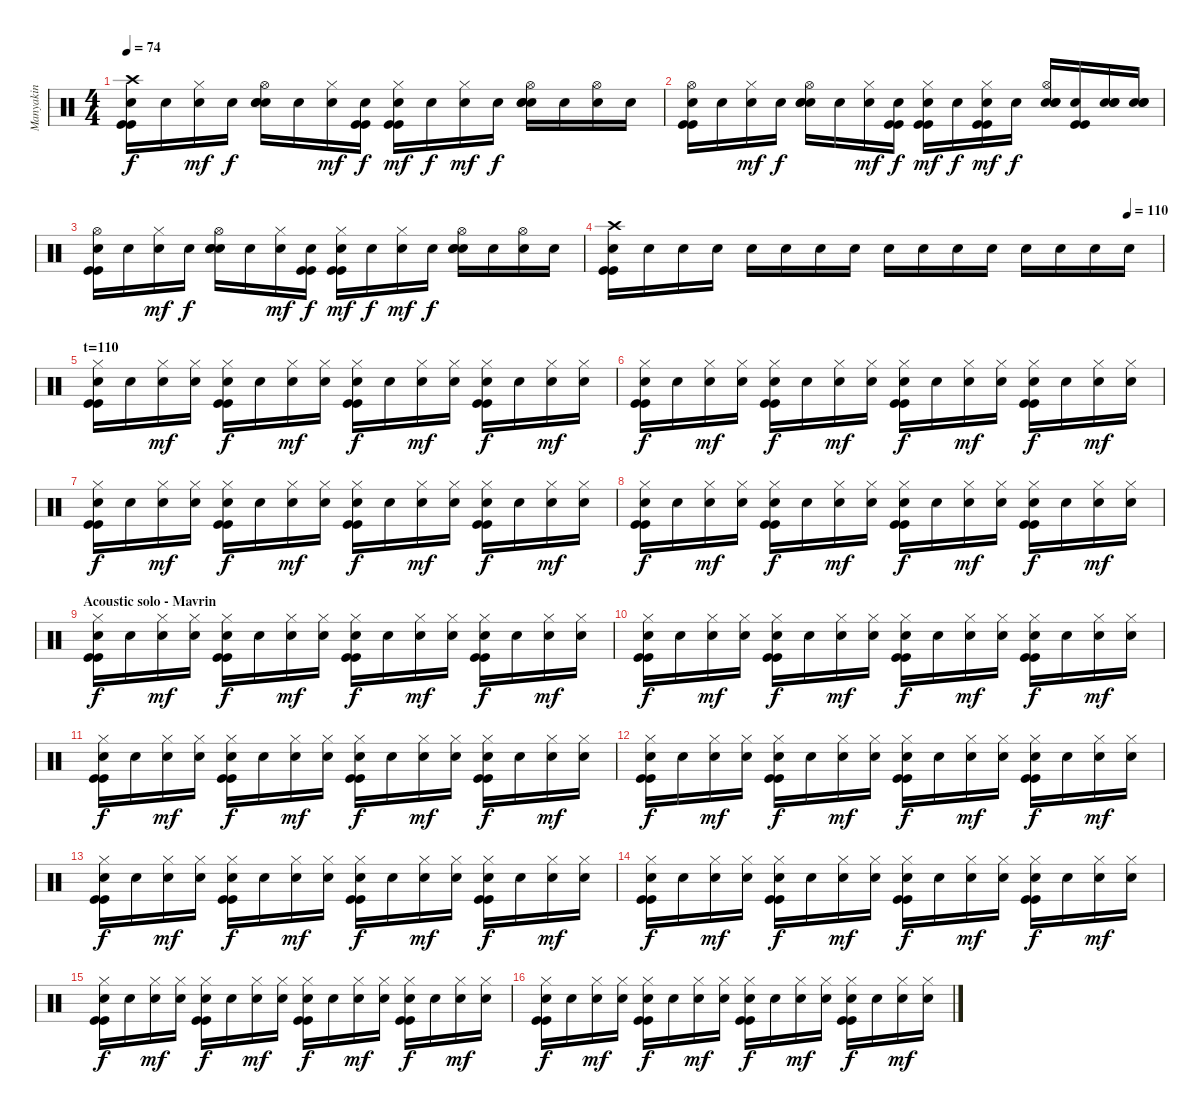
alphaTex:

\track ("Manyakin" "Manyakin") {instrument percussion}
\staff {score}
\articulation defaults
\ts (4 4)
\tempo 74
\clef neutral
\ks c
("Crash high (hit)" "Kick (hit)" "Kick (hit)" "Snare (hit)"{x}).16{dy f} "Snare (hit)"{x}.16 ("Hi-Hat (closed)" "Snare (hit)"{x}).16{dy mf} "Snare (hit)"{x}.16{dy f} ("Hi-Hat (open)" "Electric Snare (hit)" "Electric Snare (hit)" "Snare (hit)"{x}).16 "Snare (hit)"{x}.16 ("Hi-Hat (closed)" "Snare (hit)"{x}).16{dy mf} ("Kick (hit)" "Kick (hit)" "Snare (hit)"{x}).16{dy f} ("Hi-Hat (closed)" "Kick (hit)" "Kick (hit)" "Snare (hit)"{x}).16{dy mf} "Snare (hit)"{x}.16{dy f} ("Hi-Hat (closed)" "Snare (hit)"{x}).16{dy mf} "Snare (hit)"{x}.16{dy f} ("Hi-Hat (open)" "Electric Snare (hit)" "Electric Snare (hit)" "Snare (hit)"{x}).16 "Snare (hit)"{x}.16 ("Hi-Hat (open)" "Snare (hit)"{x}).16 "Snare (hit)"{x}.16 |
("Hi-Hat (open)" "Kick (hit)" "Kick (hit)" "Snare (hit)"{x}).16 "Snare (hit)"{x}.16 ("Hi-Hat (closed)" "Snare (hit)"{x}).16{dy mf} "Snare (hit)"{x}.16{dy f} ("Hi-Hat (open)" "Electric Snare (hit)" "Electric Snare (hit)" "Snare (hit)"{x}).16 "Snare (hit)"{x}.16 ("Hi-Hat (closed)" "Snare (hit)"{x}).16{dy mf} ("Kick (hit)" "Kick (hit)" "Snare (hit)"{x}).16{dy f} ("Hi-Hat (closed)" "Kick (hit)" "Kick (hit)" "Snare (hit)"{x}).16{dy mf} "Snare (hit)"{x}.16{dy f} ("Hi-Hat (closed)" "Kick (hit)" "Kick (hit)" "Snare (hit)"{x}).16{dy mf} "Snare (hit)"{x}.16{dy f} ("Hi-Hat (open)" "Electric Snare (hit)" "Electric Snare (hit)" "Snare (hit)"{x}).16 ("Kick (hit)" "Kick (hit)" "Snare (hit)"{x}).16 ("Electric Snare (hit)" "Electric Snare (hit)" "Snare (hit)"{x}).16 ("Electric Snare (hit)" "Electric Snare (hit)" "Snare (hit)"{x}).16 |
("Hi-Hat (open)" "Kick (hit)" "Kick (hit)" "Snare (hit)"{x}).16 "Snare (hit)"{x}.16 ("Hi-Hat (closed)" "Snare (hit)"{x}).16{dy mf} "Snare (hit)"{x}.16{dy f} ("Hi-Hat (open)" "Electric Snare (hit)" "Electric Snare (hit)" "Snare (hit)"{x}).16 "Snare (hit)"{x}.16 ("Hi-Hat (closed)" "Snare (hit)"{x}).16{dy mf} ("Kick (hit)" "Kick (hit)" "Snare (hit)"{x}).16{dy f} ("Hi-Hat (closed)" "Kick (hit)" "Kick (hit)" "Snare (hit)"{x}).16{dy mf} "Snare (hit)"{x}.16{dy f} ("Hi-Hat (closed)" "Snare (hit)"{x}).16{dy mf} "Snare (hit)"{x}.16{dy f} ("Hi-Hat (open)" "Electric Snare (hit)" "Electric Snare (hit)" "Snare (hit)"{x}).16 "Snare (hit)"{x}.16 ("Hi-Hat (open)" "Snare (hit)"{x}).16 "Snare (hit)"{x}.16 |
\tempo (110 0.9375)
("Crash high (hit)" "Kick (hit)" "Kick (hit)" "Snare (hit)"{x}).16 "Snare (hit)"{x}.16 "Snare (hit)"{x}.16 "Snare (hit)"{x}.16 "Snare (hit)"{x}.16 "Snare (hit)"{x}.16 "Snare (hit)"{x}.16 "Snare (hit)"{x}.16 "Snare (hit)"{x}.16 "Snare (hit)"{x}.16 "Snare (hit)"{x}.16 "Snare (hit)"{x}.16 "Snare (hit)"{x}.16 "Snare (hit)"{x}.16 "Snare (hit)"{x}.16 "Snare (hit)"{x}.16 |
\section ("" "t=110")
("Hi-Hat (closed)" "Kick (hit)" "Kick (hit)" "Snare (hit)"{x}).16 "Snare (hit)"{x}.16 ("Hi-Hat (closed)" "Snare (hit)"{x}).16{dy mf} ("Hi-Hat (closed)" "Snare (hit)"{x}).16 ("Hi-Hat (closed)" "Kick (hit)" "Kick (hit)" "Snare (hit)"{x}).16{dy f} "Snare (hit)"{x}.16 ("Hi-Hat (closed)" "Snare (hit)"{x}).16{dy mf} ("Hi-Hat (closed)" "Snare (hit)"{x}).16 ("Hi-Hat (closed)" "Kick (hit)" "Kick (hit)" "Snare (hit)"{x}).16{dy f} "Snare (hit)"{x}.16 ("Hi-Hat (closed)" "Snare (hit)"{x}).16{dy mf} ("Hi-Hat (closed)" "Snare (hit)"{x}).16 ("Hi-Hat (closed)" "Kick (hit)" "Kick (hit)" "Snare (hit)"{x}).16{dy f} "Snare (hit)"{x}.16 ("Hi-Hat (closed)" "Snare (hit)"{x}).16{dy mf} ("Hi-Hat (closed)" "Snare (hit)"{x}).16 |
("Hi-Hat (closed)" "Kick (hit)" "Kick (hit)" "Snare (hit)"{x}).16{dy f} "Snare (hit)"{x}.16 ("Hi-Hat (closed)" "Snare (hit)"{x}).16{dy mf} ("Hi-Hat (closed)" "Snare (hit)"{x}).16 ("Hi-Hat (closed)" "Kick (hit)" "Kick (hit)" "Snare (hit)"{x}).16{dy f} "Snare (hit)"{x}.16 ("Hi-Hat (closed)" "Snare (hit)"{x}).16{dy mf} ("Hi-Hat (closed)" "Snare (hit)"{x}).16 ("Hi-Hat (closed)" "Kick (hit)" "Kick (hit)" "Snare (hit)"{x}).16{dy f} "Snare (hit)"{x}.16 ("Hi-Hat (closed)" "Snare (hit)"{x}).16{dy mf} ("Hi-Hat (closed)" "Snare (hit)"{x}).16 ("Hi-Hat (closed)" "Kick (hit)" "Kick (hit)" "Snare (hit)"{x}).16{dy f} "Snare (hit)"{x}.16 ("Hi-Hat (closed)" "Snare (hit)"{x}).16{dy mf} ("Hi-Hat (closed)" "Snare (hit)"{x}).16 |
("Hi-Hat (closed)" "Kick (hit)" "Kick (hit)" "Snare (hit)"{x}).16{dy f} "Snare (hit)"{x}.16 ("Hi-Hat (closed)" "Snare (hit)"{x}).16{dy mf} ("Hi-Hat (closed)" "Snare (hit)"{x}).16 ("Hi-Hat (closed)" "Kick (hit)" "Kick (hit)" "Snare (hit)"{x}).16{dy f} "Snare (hit)"{x}.16 ("Hi-Hat (closed)" "Snare (hit)"{x}).16{dy mf} ("Hi-Hat (closed)" "Snare (hit)"{x}).16 ("Hi-Hat (closed)" "Kick (hit)" "Kick (hit)" "Snare (hit)"{x}).16{dy f} "Snare (hit)"{x}.16 ("Hi-Hat (closed)" "Snare (hit)"{x}).16{dy mf} ("Hi-Hat (closed)" "Snare (hit)"{x}).16 ("Hi-Hat (closed)" "Kick (hit)" "Kick (hit)" "Snare (hit)"{x}).16{dy f} "Snare (hit)"{x}.16 ("Hi-Hat (closed)" "Snare (hit)"{x}).16{dy mf} ("Hi-Hat (closed)" "Snare (hit)"{x}).16 |
("Hi-Hat (closed)" "Kick (hit)" "Kick (hit)" "Snare (hit)"{x}).16{dy f} "Snare (hit)"{x}.16 ("Hi-Hat (closed)" "Snare (hit)"{x}).16{dy mf} ("Hi-Hat (closed)" "Snare (hit)"{x}).16 ("Hi-Hat (closed)" "Kick (hit)" "Kick (hit)" "Snare (hit)"{x}).16{dy f} "Snare (hit)"{x}.16 ("Hi-Hat (closed)" "Snare (hit)"{x}).16{dy mf} ("Hi-Hat (closed)" "Snare (hit)"{x}).16 ("Hi-Hat (closed)" "Kick (hit)" "Kick (hit)" "Snare (hit)"{x}).16{dy f} "Snare (hit)"{x}.16 ("Hi-Hat (closed)" "Snare (hit)"{x}).16{dy mf} ("Hi-Hat (closed)" "Snare (hit)"{x}).16 ("Hi-Hat (closed)" "Kick (hit)" "Kick (hit)" "Snare (hit)"{x}).16{dy f} "Snare (hit)"{x}.16 ("Hi-Hat (closed)" "Snare (hit)"{x}).16{dy mf} ("Hi-Hat (closed)" "Snare (hit)"{x}).16 |
\section ("" "Acoustic solo - Mavrin")
("Hi-Hat (closed)" "Kick (hit)" "Kick (hit)" "Snare (hit)"{x}).16{dy f} "Snare (hit)"{x}.16 ("Hi-Hat (closed)" "Snare (hit)"{x}).16{dy mf} ("Hi-Hat (closed)" "Snare (hit)"{x}).16 ("Hi-Hat (closed)" "Kick (hit)" "Kick (hit)" "Snare (hit)"{x}).16{dy f} "Snare (hit)"{x}.16 ("Hi-Hat (closed)" "Snare (hit)"{x}).16{dy mf} ("Hi-Hat (closed)" "Snare (hit)"{x}).16 ("Hi-Hat (closed)" "Kick (hit)" "Kick (hit)" "Snare (hit)"{x}).16{dy f} "Snare (hit)"{x}.16 ("Hi-Hat (closed)" "Snare (hit)"{x}).16{dy mf} ("Hi-Hat (closed)" "Snare (hit)"{x}).16 ("Hi-Hat (closed)" "Kick (hit)" "Kick (hit)" "Snare (hit)"{x}).16{dy f} "Snare (hit)"{x}.16 ("Hi-Hat (closed)" "Snare (hit)"{x}).16{dy mf} ("Hi-Hat (closed)" "Snare (hit)"{x}).16 |
("Hi-Hat (closed)" "Kick (hit)" "Kick (hit)" "Snare (hit)"{x}).16{dy f} "Snare (hit)"{x}.16 ("Hi-Hat (closed)" "Snare (hit)"{x}).16{dy mf} ("Hi-Hat (closed)" "Snare (hit)"{x}).16 ("Hi-Hat (closed)" "Kick (hit)" "Kick (hit)" "Snare (hit)"{x}).16{dy f} "Snare (hit)"{x}.16 ("Hi-Hat (closed)" "Snare (hit)"{x}).16{dy mf} ("Hi-Hat (closed)" "Snare (hit)"{x}).16 ("Hi-Hat (closed)" "Kick (hit)" "Kick (hit)" "Snare (hit)"{x}).16{dy f} "Snare (hit)"{x}.16 ("Hi-Hat (closed)" "Snare (hit)"{x}).16{dy mf} ("Hi-Hat (closed)" "Snare (hit)"{x}).16 ("Hi-Hat (closed)" "Kick (hit)" "Kick (hit)" "Snare (hit)"{x}).16{dy f} "Snare (hit)"{x}.16 ("Hi-Hat (closed)" "Snare (hit)"{x}).16{dy mf} ("Hi-Hat (closed)" "Snare (hit)"{x}).16 |
("Hi-Hat (closed)" "Kick (hit)" "Kick (hit)" "Snare (hit)"{x}).16{dy f} "Snare (hit)"{x}.16 ("Hi-Hat (closed)" "Snare (hit)"{x}).16{dy mf} ("Hi-Hat (closed)" "Snare (hit)"{x}).16 ("Hi-Hat (closed)" "Kick (hit)" "Kick (hit)" "Snare (hit)"{x}).16{dy f} "Snare (hit)"{x}.16 ("Hi-Hat (closed)" "Snare (hit)"{x}).16{dy mf} ("Hi-Hat (closed)" "Snare (hit)"{x}).16 ("Hi-Hat (closed)" "Kick (hit)" "Kick (hit)" "Snare (hit)"{x}).16{dy f} "Snare (hit)"{x}.16 ("Hi-Hat (closed)" "Snare (hit)"{x}).16{dy mf} ("Hi-Hat (closed)" "Snare (hit)"{x}).16 ("Hi-Hat (closed)" "Kick (hit)" "Kick (hit)" "Snare (hit)"{x}).16{dy f} "Snare (hit)"{x}.16 ("Hi-Hat (closed)" "Snare (hit)"{x}).16{dy mf} ("Hi-Hat (closed)" "Snare (hit)"{x}).16 |
("Hi-Hat (closed)" "Kick (hit)" "Kick (hit)" "Snare (hit)"{x}).16{dy f} "Snare (hit)"{x}.16 ("Hi-Hat (closed)" "Snare (hit)"{x}).16{dy mf} ("Hi-Hat (closed)" "Snare (hit)"{x}).16 ("Hi-Hat (closed)" "Kick (hit)" "Kick (hit)" "Snare (hit)"{x}).16{dy f} "Snare (hit)"{x}.16 ("Hi-Hat (closed)" "Snare (hit)"{x}).16{dy mf} ("Hi-Hat (closed)" "Snare (hit)"{x}).16 ("Hi-Hat (closed)" "Kick (hit)" "Kick (hit)" "Snare (hit)"{x}).16{dy f} "Snare (hit)"{x}.16 ("Hi-Hat (closed)" "Snare (hit)"{x}).16{dy mf} ("Hi-Hat (closed)" "Snare (hit)"{x}).16 ("Hi-Hat (closed)" "Kick (hit)" "Kick (hit)" "Snare (hit)"{x}).16{dy f} "Snare (hit)"{x}.16 ("Hi-Hat (closed)" "Snare (hit)"{x}).16{dy mf} ("Hi-Hat (closed)" "Snare (hit)"{x}).16 |
("Hi-Hat (closed)" "Kick (hit)" "Kick (hit)" "Snare (hit)"{x}).16{dy f} "Snare (hit)"{x}.16 ("Hi-Hat (closed)" "Snare (hit)"{x}).16{dy mf} ("Hi-Hat (closed)" "Snare (hit)"{x}).16 ("Hi-Hat (closed)" "Kick (hit)" "Kick (hit)" "Snare (hit)"{x}).16{dy f} "Snare (hit)"{x}.16 ("Hi-Hat (closed)" "Snare (hit)"{x}).16{dy mf} ("Hi-Hat (closed)" "Snare (hit)"{x}).16 ("Hi-Hat (closed)" "Kick (hit)" "Kick (hit)" "Snare (hit)"{x}).16{dy f} "Snare (hit)"{x}.16 ("Hi-Hat (closed)" "Snare (hit)"{x}).16{dy mf} ("Hi-Hat (closed)" "Snare (hit)"{x}).16 ("Hi-Hat (closed)" "Kick (hit)" "Kick (hit)" "Snare (hit)"{x}).16{dy f} "Snare (hit)"{x}.16 ("Hi-Hat (closed)" "Snare (hit)"{x}).16{dy mf} ("Hi-Hat (closed)" "Snare (hit)"{x}).16 |
("Hi-Hat (closed)" "Kick (hit)" "Kick (hit)" "Snare (hit)"{x}).16{dy f} "Snare (hit)"{x}.16 ("Hi-Hat (closed)" "Snare (hit)"{x}).16{dy mf} ("Hi-Hat (closed)" "Snare (hit)"{x}).16 ("Hi-Hat (closed)" "Kick (hit)" "Kick (hit)" "Snare (hit)"{x}).16{dy f} "Snare (hit)"{x}.16 ("Hi-Hat (closed)" "Snare (hit)"{x}).16{dy mf} ("Hi-Hat (closed)" "Snare (hit)"{x}).16 ("Hi-Hat (closed)" "Kick (hit)" "Kick (hit)" "Snare (hit)"{x}).16{dy f} "Snare (hit)"{x}.16 ("Hi-Hat (closed)" "Snare (hit)"{x}).16{dy mf} ("Hi-Hat (closed)" "Snare (hit)"{x}).16 ("Hi-Hat (closed)" "Kick (hit)" "Kick (hit)" "Snare (hit)"{x}).16{dy f} "Snare (hit)"{x}.16 ("Hi-Hat (closed)" "Snare (hit)"{x}).16{dy mf} ("Hi-Hat (closed)" "Snare (hit)"{x}).16 |
("Hi-Hat (closed)" "Kick (hit)" "Kick (hit)" "Snare (hit)"{x}).16{dy f} "Snare (hit)"{x}.16 ("Hi-Hat (closed)" "Snare (hit)"{x}).16{dy mf} ("Hi-Hat (closed)" "Snare (hit)"{x}).16 ("Hi-Hat (closed)" "Kick (hit)" "Kick (hit)" "Snare (hit)"{x}).16{dy f} "Snare (hit)"{x}.16 ("Hi-Hat (closed)" "Snare (hit)"{x}).16{dy mf} ("Hi-Hat (closed)" "Snare (hit)"{x}).16 ("Hi-Hat (closed)" "Kick (hit)" "Kick (hit)" "Snare (hit)"{x}).16{dy f} "Snare (hit)"{x}.16 ("Hi-Hat (closed)" "Snare (hit)"{x}).16{dy mf} ("Hi-Hat (closed)" "Snare (hit)"{x}).16 ("Hi-Hat (closed)" "Kick (hit)" "Kick (hit)" "Snare (hit)"{x}).16{dy f} "Snare (hit)"{x}.16 ("Hi-Hat (closed)" "Snare (hit)"{x}).16{dy mf} ("Hi-Hat (closed)" "Snare (hit)"{x}).16 |
("Hi-Hat (closed)" "Kick (hit)" "Kick (hit)" "Snare (hit)"{x}).16{dy f} "Snare (hit)"{x}.16 ("Hi-Hat (closed)" "Snare (hit)"{x}).16{dy mf} ("Hi-Hat (closed)" "Snare (hit)"{x}).16 ("Hi-Hat (closed)" "Kick (hit)" "Kick (hit)" "Snare (hit)"{x}).16{dy f} "Snare (hit)"{x}.16 ("Hi-Hat (closed)" "Snare (hit)"{x}).16{dy mf} ("Hi-Hat (closed)" "Snare (hit)"{x}).16 ("Hi-Hat (closed)" "Kick (hit)" "Kick (hit)" "Snare (hit)"{x}).16{dy f} "Snare (hit)"{x}.16 ("Hi-Hat (closed)" "Snare (hit)"{x}).16{dy mf} ("Hi-Hat (closed)" "Snare (hit)"{x}).16 ("Hi-Hat (closed)" "Kick (hit)" "Kick (hit)" "Snare (hit)"{x}).16{dy f} "Snare (hit)"{x}.16 ("Hi-Hat (closed)" "Snare (hit)"{x}).16{dy mf} ("Hi-Hat (closed)" "Snare (hit)"{x}).16
